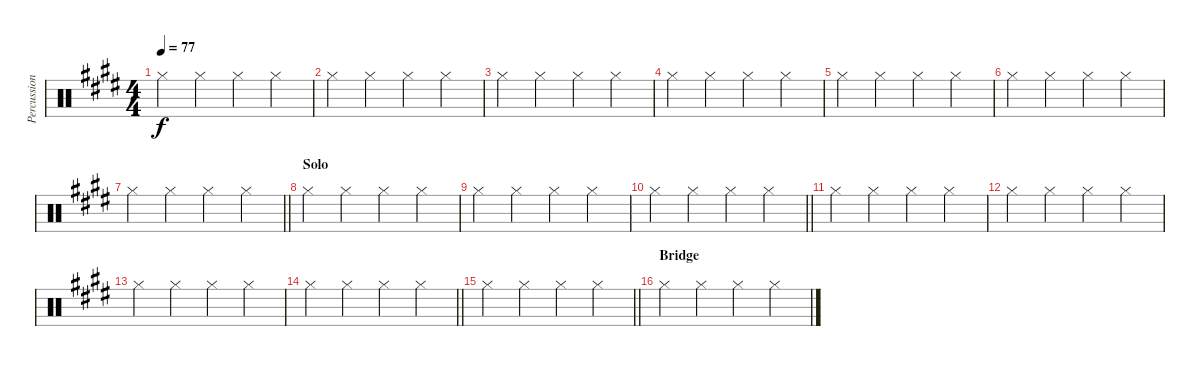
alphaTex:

\track ("Percussion" "Percussion") {instrument percussion}
\staff {score}
\articulation defaults
\ts (4 4)
\tempo 77
\clef neutral
\ks c#minor "Hi-Hat (closed)".4{dy f} "Hi-Hat (closed)".4 "Hi-Hat (closed)".4 "Hi-Hat (closed)".4
|
"Hi-Hat (closed)".4 "Hi-Hat (closed)".4 "Hi-Hat (closed)".4 "Hi-Hat (closed)".4 |
"Hi-Hat (closed)".4 "Hi-Hat (closed)".4 "Hi-Hat (closed)".4 "Hi-Hat (closed)".4 |
"Hi-Hat (closed)".4 "Hi-Hat (closed)".4 "Hi-Hat (closed)".4 "Hi-Hat (closed)".4 |
"Hi-Hat (closed)".4 "Hi-Hat (closed)".4 "Hi-Hat (closed)".4 "Hi-Hat (closed)".4 |
"Hi-Hat (closed)".4 "Hi-Hat (closed)".4 "Hi-Hat (closed)".4 "Hi-Hat (closed)".4 |
\barLineRight lightlight "Hi-Hat (closed)".4 "Hi-Hat (closed)".4 "Hi-Hat (closed)".4 "Hi-Hat (closed)".4
|
\section ("" "Solo")
"Hi-Hat (closed)".4 "Hi-Hat (closed)".4 "Hi-Hat (closed)".4 "Hi-Hat (closed)".4 |
"Hi-Hat (closed)".4 "Hi-Hat (closed)".4 "Hi-Hat (closed)".4 "Hi-Hat (closed)".4 |
\barLineRight lightlight "Hi-Hat (closed)".4 "Hi-Hat (closed)".4 "Hi-Hat (closed)".4 "Hi-Hat (closed)".4
|
"Hi-Hat (closed)".4 "Hi-Hat (closed)".4 "Hi-Hat (closed)".4 "Hi-Hat (closed)".4 |
"Hi-Hat (closed)".4 "Hi-Hat (closed)".4 "Hi-Hat (closed)".4 "Hi-Hat (closed)".4 |
"Hi-Hat (closed)".4 "Hi-Hat (closed)".4 "Hi-Hat (closed)".4 "Hi-Hat (closed)".4 |
\barLineRight lightlight "Hi-Hat (closed)".4 "Hi-Hat (closed)".4 "Hi-Hat (closed)".4 "Hi-Hat (closed)".4
|
\barLineRight lightlight "Hi-Hat (closed)".4 "Hi-Hat (closed)".4 "Hi-Hat (closed)".4 "Hi-Hat (closed)".4
|
\section ("" "Bridge")
"Hi-Hat (closed)".4 "Hi-Hat (closed)".4 "Hi-Hat (closed)".4 "Hi-Hat (closed)".4
